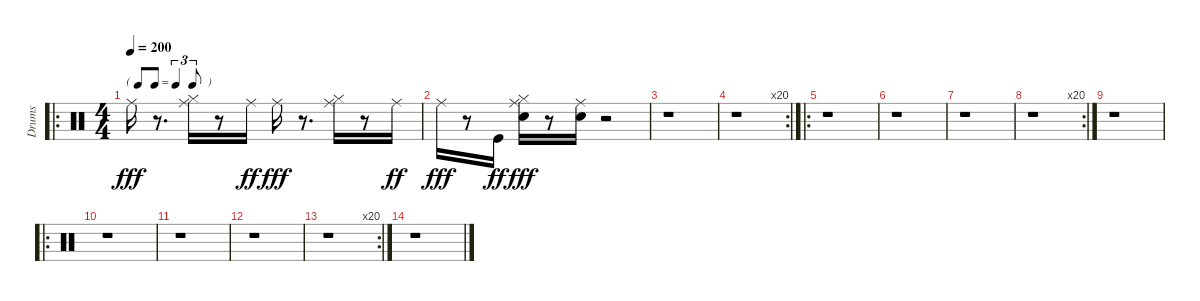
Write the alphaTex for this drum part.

\track ("Drums                                   " "Drums     ") {instrument percussion}
\staff {score}
\articulation defaults
\ro
\ts (4 4)
\tf triplet8th
\tempo 200
\clef neutral
\ks c "Ride (middle)".16{dy fff}
r.8{d} ("Hi-Hat (closed)" "Ride (middle)").16 r.8 "Ride (middle)".16{dy ff} "Ride (middle)".16{dy fff} r.8{d} ("Hi-Hat (closed)" "Ride (middle)").16 r.8 "Ride (middle)".16{dy ff} |
"Ride (middle)".16{dy fff} r.8 "Kick (hit)".16{dy ff} ("Snare (hit) 2" "Hi-Hat (closed)" "Ride (middle)").16{dy fff} r.8 ("Snare (hit) 2" "Ride (middle)").16 r.2 |
r.1 |
\rc 20
r.1 |
\ro
r.1 |
r.1 |
r.1 |
\rc 20
r.1 |
r.1 |
\ro
r.1 |
r.1 |
r.1 |
\rc 20
r.1 |
r.1
